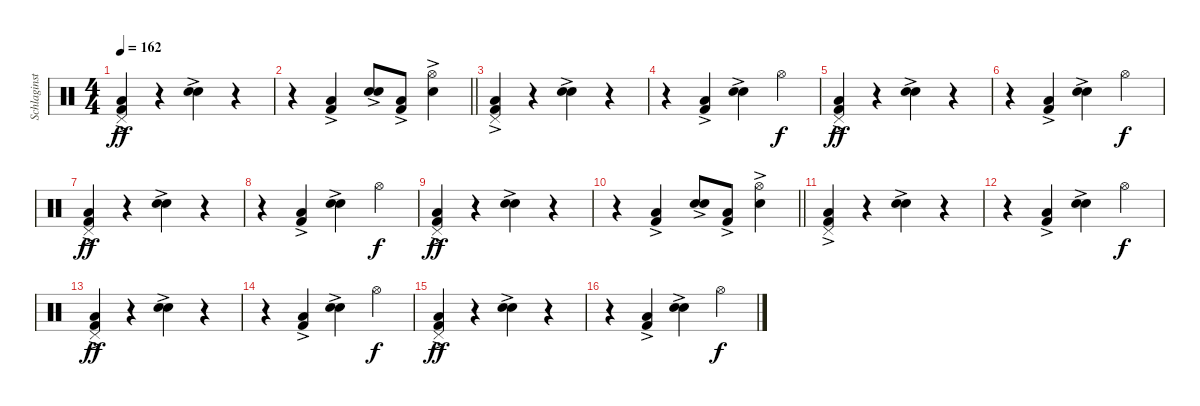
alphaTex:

\track ("Schlaginstrumente - Auswahl" "Schlaginst") {instrument percussion}
\staff {score}
\articulation defaults
\ts (4 4)
\tempo 162
\clef neutral
\ks c
("Pedal Hi-Hat (hit)" "Kick (hit) 2"{ac} "Low Floor Tom (hit)").4{dy ff} r.4 ("Hand Clap (hit)" "Electric Snare (hit)"{ac}).4 r.4 |
\barLineRight lightlight
r.4 ("Low Floor Tom (hit)" "Kick (hit) 2"{ac}).4 ("Hand Clap (hit)" "Electric Snare (hit)"{ac}).8 ("Low Floor Tom (hit)" "Kick (hit) 2"{ac}).8 ("Hi-Hat (open)" "Electric Snare (hit)"{ac}).4 |
("Pedal Hi-Hat (hit)" "Low Floor Tom (hit)" "Kick (hit) 2"{ac}).4 r.4 ("Hand Clap (hit)" "Electric Snare (hit)"{ac}).4 r.4 |
r.4 ("Low Floor Tom (hit)" "Kick (hit) 2"{ac}).4 ("Hand Clap (hit)" "Electric Snare (hit)"{ac}).4 "Hi-Hat (open)".4{dy f} |
("Pedal Hi-Hat (hit)" "Low Floor Tom (hit)" "Kick (hit) 2"{ac}).4{dy ff} r.4 ("Hand Clap (hit)" "Electric Snare (hit)"{ac}).4 r.4 |
r.4 ("Low Floor Tom (hit)" "Kick (hit) 2"{ac}).4 ("Hand Clap (hit)" "Electric Snare (hit)"{ac}).4 "Hi-Hat (open)".4{dy f} |
("Pedal Hi-Hat (hit)" "Low Floor Tom (hit)" "Kick (hit) 2"{ac}).4{dy ff} r.4 ("Hand Clap (hit)" "Electric Snare (hit)"{ac}).4 r.4 |
r.4 ("Low Floor Tom (hit)" "Kick (hit) 2"{ac}).4 ("Hand Clap (hit)" "Electric Snare (hit)"{ac}).4 "Hi-Hat (open)".4{dy f} |
("Pedal Hi-Hat (hit)" "Kick (hit) 2"{ac} "Low Floor Tom (hit)").4{dy ff} r.4 ("Hand Clap (hit)" "Electric Snare (hit)"{ac}).4 r.4 |
\barLineRight lightlight
r.4 ("Low Floor Tom (hit)" "Kick (hit) 2"{ac}).4 ("Hand Clap (hit)" "Electric Snare (hit)"{ac}).8 ("Low Floor Tom (hit)" "Kick (hit) 2"{ac}).8 ("Hi-Hat (open)" "Electric Snare (hit)"{ac}).4 |
("Pedal Hi-Hat (hit)" "Low Floor Tom (hit)" "Kick (hit) 2"{ac}).4 r.4 ("Hand Clap (hit)" "Electric Snare (hit)"{ac}).4 r.4 |
r.4 ("Low Floor Tom (hit)" "Kick (hit) 2"{ac}).4 ("Hand Clap (hit)" "Electric Snare (hit)"{ac}).4 "Hi-Hat (open)".4{dy f} |
("Pedal Hi-Hat (hit)" "Low Floor Tom (hit)" "Kick (hit) 2"{ac}).4{dy ff} r.4 ("Hand Clap (hit)" "Electric Snare (hit)"{ac}).4 r.4 |
r.4 ("Low Floor Tom (hit)" "Kick (hit) 2"{ac}).4 ("Hand Clap (hit)" "Electric Snare (hit)"{ac}).4 "Hi-Hat (open)".4{dy f} |
("Pedal Hi-Hat (hit)" "Low Floor Tom (hit)" "Kick (hit) 2"{ac}).4{dy ff} r.4 ("Hand Clap (hit)" "Electric Snare (hit)"{ac}).4 r.4 |
r.4 ("Low Floor Tom (hit)" "Kick (hit) 2"{ac}).4 ("Hand Clap (hit)" "Electric Snare (hit)"{ac}).4 "Hi-Hat (open)".4{dy f}
